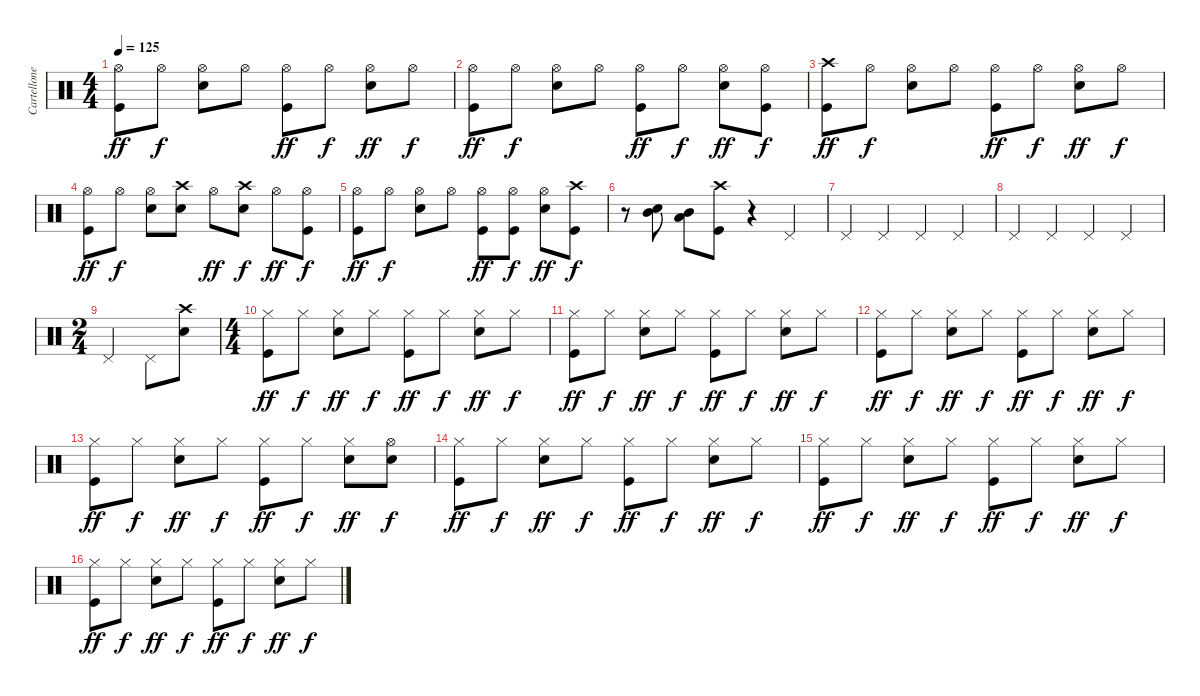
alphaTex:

\track ("Cartellone" "Cartellone") {instrument percussion}
\staff {score}
\articulation defaults
\ts (4 4)
\tempo 125
\clef neutral
\ks c
("Hi-Hat (open)" "Kick (hit)").8{dy ff} "Hi-Hat (open)".8{dy f} ("Hi-Hat (open)" "Snare (hit) 2").8 "Hi-Hat (open)".8 ("Hi-Hat (open)" "Kick (hit)").8{dy ff} "Hi-Hat (open)".8{dy f} ("Hi-Hat (open)" "Snare (hit) 2").8{dy ff} "Hi-Hat (open)".8{dy f} |
("Hi-Hat (open)" "Kick (hit)").8{dy ff} "Hi-Hat (open)".8{dy f} ("Hi-Hat (open)" "Snare (hit) 2").8 "Hi-Hat (open)".8 ("Hi-Hat (open)" "Kick (hit)").8{dy ff} "Hi-Hat (open)".8{dy f} ("Hi-Hat (open)" "Snare (hit) 2").8{dy ff} ("Hi-Hat (open)" "Kick (hit)").8{dy f} |
("Crash high (hit)" "Kick (hit)").8{dy ff} "Hi-Hat (open)".8{dy f} ("Hi-Hat (open)" "Snare (hit) 2").8 "Hi-Hat (open)".8 ("Hi-Hat (open)" "Kick (hit)").8{dy ff} "Hi-Hat (open)".8{dy f} ("Hi-Hat (open)" "Snare (hit) 2").8{dy ff} "Hi-Hat (open)".8{dy f} |
("Hi-Hat (open)" "Kick (hit)").8{dy ff} "Hi-Hat (open)".8{dy f} ("Hi-Hat (open)" "Snare (hit) 2").8 ("Crash high (hit)" "Snare (hit) 2").8 "Hi-Hat (open)".8{dy ff} ("Crash high (hit)" "Snare (hit) 2").8{dy f} "Hi-Hat (open)".8{dy ff} ("Hi-Hat (open)" "Kick (hit)").8{dy f} |
("Hi-Hat (open)" "Kick (hit)").8{dy ff} "Hi-Hat (open)".8{dy f} ("Hi-Hat (open)" "Snare (hit) 2").8 "Hi-Hat (open)".8 ("Hi-Hat (open)" "Kick (hit)").8{dy ff} ("Hi-Hat (open)" "Kick (hit)").8{dy f} ("Hi-Hat (open)" "Snare (hit) 2").8{dy ff} ("Crash high (hit)" "Kick (hit)").8{dy f} |
r.8 ("Snare (hit) 2" "Mid Tom (hit)").8 ("Low Tom (hit)" "Mid Tom (hit)").8 ("Crash high (hit)" "Kick (hit)").8 r.4 "Pedal Hi-Hat (hit)".4 |
"Pedal Hi-Hat (hit)".4 "Pedal Hi-Hat (hit)".4 "Pedal Hi-Hat (hit)".4 "Pedal Hi-Hat (hit)".4 |
"Pedal Hi-Hat (hit)".4 "Pedal Hi-Hat (hit)".4 "Pedal Hi-Hat (hit)".4 "Pedal Hi-Hat (hit)".4 |
\ts (2 4)
"Pedal Hi-Hat (hit)".4 "Pedal Hi-Hat (hit)".8 ("Crash high (hit)" "Snare (hit) 2").8 |
\ts (4 4)
("Hi-Hat (closed)" "Kick (hit)").8{dy ff} "Hi-Hat (closed)".8{dy f} ("Hi-Hat (closed)" "Snare (hit) 2").8{dy ff} "Hi-Hat (closed)".8{dy f} ("Hi-Hat (closed)" "Kick (hit)").8{dy ff} "Hi-Hat (closed)".8{dy f} ("Hi-Hat (closed)" "Snare (hit) 2").8{dy ff} "Hi-Hat (closed)".8{dy f} |
("Hi-Hat (closed)" "Kick (hit)").8{dy ff} "Hi-Hat (closed)".8{dy f} ("Hi-Hat (closed)" "Snare (hit) 2").8{dy ff} "Hi-Hat (closed)".8{dy f} ("Hi-Hat (closed)" "Kick (hit)").8{dy ff} "Hi-Hat (closed)".8{dy f} ("Hi-Hat (closed)" "Snare (hit) 2").8{dy ff} "Hi-Hat (closed)".8{dy f} |
("Hi-Hat (closed)" "Kick (hit)").8{dy ff} "Hi-Hat (closed)".8{dy f} ("Hi-Hat (closed)" "Snare (hit) 2").8{dy ff} "Hi-Hat (closed)".8{dy f} ("Hi-Hat (closed)" "Kick (hit)").8{dy ff} "Hi-Hat (closed)".8{dy f} ("Hi-Hat (closed)" "Snare (hit) 2").8{dy ff} "Hi-Hat (closed)".8{dy f} |
("Hi-Hat (closed)" "Kick (hit)").8{dy ff} "Hi-Hat (closed)".8{dy f} ("Hi-Hat (closed)" "Snare (hit) 2").8{dy ff} "Hi-Hat (closed)".8{dy f} ("Hi-Hat (closed)" "Kick (hit)").8{dy ff} "Hi-Hat (closed)".8{dy f} ("Hi-Hat (closed)" "Snare (hit) 2").8{dy ff} ("Hi-Hat (open)" "Snare (hit) 2").8{dy f} |
("Hi-Hat (closed)" "Kick (hit)").8{dy ff} "Hi-Hat (closed)".8{dy f} ("Hi-Hat (closed)" "Snare (hit) 2").8{dy ff} "Hi-Hat (closed)".8{dy f} ("Hi-Hat (closed)" "Kick (hit)").8{dy ff} "Hi-Hat (closed)".8{dy f} ("Hi-Hat (closed)" "Snare (hit) 2").8{dy ff} "Hi-Hat (closed)".8{dy f} |
("Hi-Hat (closed)" "Kick (hit)").8{dy ff} "Hi-Hat (closed)".8{dy f} ("Hi-Hat (closed)" "Snare (hit) 2").8{dy ff} "Hi-Hat (closed)".8{dy f} ("Hi-Hat (closed)" "Kick (hit)").8{dy ff} "Hi-Hat (closed)".8{dy f} ("Hi-Hat (closed)" "Snare (hit) 2").8{dy ff} "Hi-Hat (closed)".8{dy f} |
("Hi-Hat (closed)" "Kick (hit)").8{dy ff} "Hi-Hat (closed)".8{dy f} ("Hi-Hat (closed)" "Snare (hit) 2").8{dy ff} "Hi-Hat (closed)".8{dy f} ("Hi-Hat (closed)" "Kick (hit)").8{dy ff} "Hi-Hat (closed)".8{dy f} ("Hi-Hat (closed)" "Snare (hit) 2").8{dy ff} "Hi-Hat (closed)".8{dy f}
